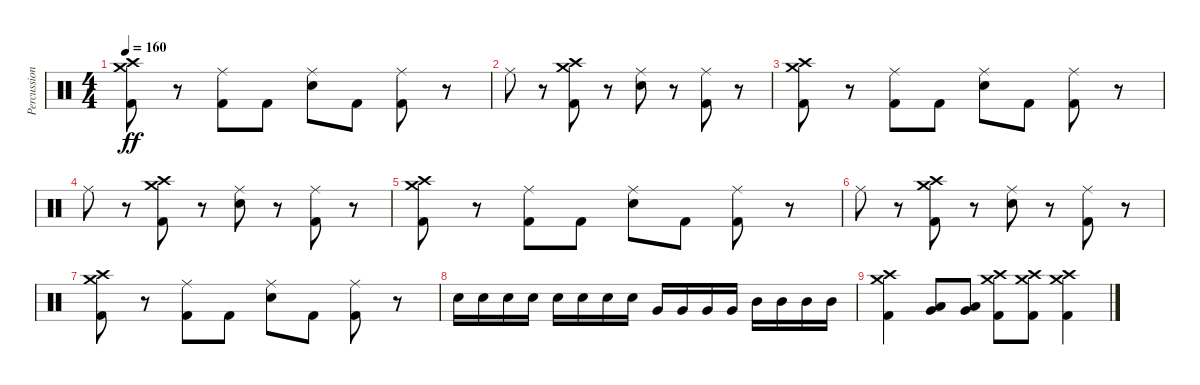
\track ("Percussion" "Percussion") {instrument percussion}
\staff {score}
\articulation defaults
\ts (4 4)
\tempo 160
\clef neutral
\ks c
("Kick (hit) 2" "Crash high (hit)" "Crash medium (hit)").8{dy ff} r.8 ("Kick (hit) 2" "Ride (middle)").8 "Kick (hit) 2".8 ("Electric Snare (hit)" "Ride (middle)").8 "Kick (hit) 2".8 ("Kick (hit) 2" "Ride (middle)").8 r.8 |
"Ride (middle)".8 r.8 ("Kick (hit) 2" "Crash high (hit)" "Crash medium (hit)").8 r.8 ("Electric Snare (hit)" "Ride (middle)").8 r.8 ("Kick (hit) 2" "Ride (middle)").8 r.8 |
("Kick (hit) 2" "Crash high (hit)" "Crash medium (hit)").8 r.8 ("Kick (hit) 2" "Ride (middle)").8 "Kick (hit) 2".8 ("Electric Snare (hit)" "Ride (middle)").8 "Kick (hit) 2".8 ("Kick (hit) 2" "Ride (middle)").8 r.8 |
"Ride (middle)".8 r.8 ("Kick (hit) 2" "Crash high (hit)" "Crash medium (hit)").8 r.8 ("Electric Snare (hit)" "Ride (middle)").8 r.8 ("Kick (hit) 2" "Ride (middle)").8 r.8 |
("Kick (hit) 2" "Crash high (hit)" "Crash medium (hit)").8 r.8 ("Kick (hit) 2" "Ride (middle)").8 "Kick (hit) 2".8 ("Electric Snare (hit)" "Ride (middle)").8 "Kick (hit) 2".8 ("Kick (hit) 2" "Ride (middle)").8 r.8 |
"Ride (middle)".8 r.8 ("Kick (hit) 2" "Crash high (hit)" "Crash medium (hit)").8 r.8 ("Electric Snare (hit)" "Ride (middle)").8 r.8 ("Kick (hit) 2" "Ride (middle)").8 r.8 |
("Kick (hit) 2" "Crash high (hit)" "Crash medium (hit)").8 r.8 ("Kick (hit) 2" "Ride (middle)").8 "Kick (hit) 2".8 ("Electric Snare (hit)" "Ride (middle)").8 "Kick (hit) 2".8 ("Kick (hit) 2" "Ride (middle)").8 r.8 |
"Electric Snare (hit)".16 "Electric Snare (hit)".16 "Electric Snare (hit)".16 "Electric Snare (hit)".16 "Electric Snare (hit)".16 "Electric Snare (hit)".16 "Electric Snare (hit)".16 "Electric Snare (hit)".16 "Very Low Tom (hit)".16 "Very Low Tom (hit)".16 "Very Low Tom (hit)".16 "Very Low Tom (hit)".16 "Mid Tom (hit)".16 "Mid Tom (hit)".16 "Mid Tom (hit)".16 "Mid Tom (hit)".16 |
("Kick (hit) 2" "Crash high (hit)" "Crash medium (hit)").4 ("Low Tom (hit)" "Very Low Tom (hit)").8 ("Low Tom (hit)" "Very Low Tom (hit)").8 ("Kick (hit) 2" "Crash high (hit)" "Crash medium (hit)").8 ("Kick (hit) 2" "Crash high (hit)" "Crash medium (hit)").8 ("Kick (hit) 2" "Crash high (hit)" "Crash medium (hit)").4
